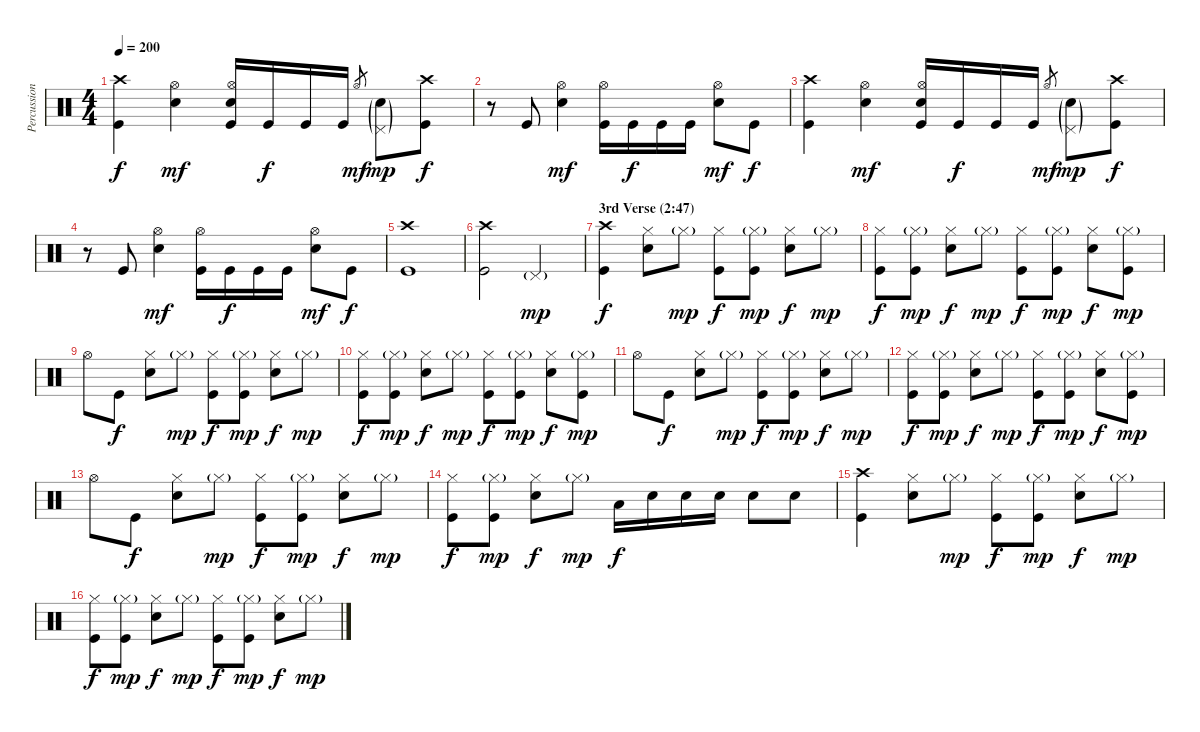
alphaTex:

\track ("Percussion" "Percussion") {instrument percussion}
\staff {score}
\articulation defaults
\ts (4 4)
\tempo 200
\clef neutral
\ks c
("Crash high (hit)" "Kick (hit)").4{dy f} ("Hi-Hat (open)" "Snare (hit) 2").4{dy mf} ("Hi-Hat (open)" "Snare (hit) 2" "Kick (hit)").16 "Kick (hit)".16{dy f} "Kick (hit)".16 "Kick (hit)".16 "Hi-Hat (open)".8{gr dy mf} ("Pedal Hi-Hat (hit)"{g} "Snare (hit) 2"{g}).8{dy mp} ("Crash high (hit)" "Kick (hit)").8{dy f} |
r.8 "Kick (hit)".8 ("Hi-Hat (open)" "Snare (hit) 2").4{dy mf} ("Hi-Hat (open)" "Kick (hit)").16 "Kick (hit)".16{dy f} "Kick (hit)".16 "Kick (hit)".16 ("Hi-Hat (open)" "Snare (hit) 2").8{dy mf} "Kick (hit)".8{dy f} |
("Crash high (hit)" "Kick (hit)").4 ("Hi-Hat (open)" "Snare (hit) 2").4{dy mf} ("Hi-Hat (open)" "Snare (hit) 2" "Kick (hit)").16 "Kick (hit)".16{dy f} "Kick (hit)".16 "Kick (hit)".16 "Hi-Hat (open)".8{gr dy mf} ("Pedal Hi-Hat (hit)"{g} "Snare (hit) 2"{g}).8{dy mp} ("Crash high (hit)" "Kick (hit)").8{dy f} |
r.8 "Kick (hit)".8 ("Hi-Hat (open)" "Snare (hit) 2").4{dy mf} ("Hi-Hat (open)" "Kick (hit)").16 "Kick (hit)".16{dy f} "Kick (hit)".16 "Kick (hit)".16 ("Hi-Hat (open)" "Snare (hit) 2").8{dy mf} "Kick (hit)".8{dy f} |
("Crash high (hit)" "Kick (hit)").1 |
("Crash high (hit)" "Kick (hit)").2 "Pedal Hi-Hat (hit)"{g}.2{dy mp} |
\section ("" "3rd Verse (2:47)")
("Crash high (hit)" "Kick (hit)").4{dy f} ("Hi-Hat (closed)" "Snare (hit) 2").8 "Hi-Hat (closed)"{g}.8{dy mp} ("Hi-Hat (closed)" "Kick (hit)").8{dy f} ("Hi-Hat (closed)"{g} "Kick (hit)").8{dy mp} ("Hi-Hat (closed)" "Snare (hit) 2").8{dy f} "Hi-Hat (closed)"{g}.8{dy mp} |
("Hi-Hat (closed)" "Kick (hit)").8{dy f} ("Hi-Hat (closed)"{g} "Kick (hit)").8{dy mp} ("Hi-Hat (closed)" "Snare (hit) 2").8{dy f} "Hi-Hat (closed)"{g}.8{dy mp} ("Hi-Hat (closed)" "Kick (hit)").8{dy f} ("Hi-Hat (closed)"{g} "Kick (hit)").8{dy mp} ("Hi-Hat (closed)" "Snare (hit) 2").8{dy f} ("Hi-Hat (closed)"{g} "Kick (hit)").8{dy mp} |
"Hi-Hat (open)".8 "Kick (hit)".8{dy f} ("Hi-Hat (closed)" "Snare (hit) 2").8 "Hi-Hat (closed)"{g}.8{dy mp} ("Hi-Hat (closed)" "Kick (hit)").8{dy f} ("Hi-Hat (closed)"{g} "Kick (hit)").8{dy mp} ("Hi-Hat (closed)" "Snare (hit) 2").8{dy f} "Hi-Hat (closed)"{g}.8{dy mp} |
("Hi-Hat (closed)" "Kick (hit)").8{dy f} ("Hi-Hat (closed)"{g} "Kick (hit)").8{dy mp} ("Hi-Hat (closed)" "Snare (hit) 2").8{dy f} "Hi-Hat (closed)"{g}.8{dy mp} ("Hi-Hat (closed)" "Kick (hit)").8{dy f} ("Hi-Hat (closed)"{g} "Kick (hit)").8{dy mp} ("Hi-Hat (closed)" "Snare (hit) 2").8{dy f} ("Hi-Hat (closed)"{g} "Kick (hit)").8{dy mp} |
"Hi-Hat (open)".8 "Kick (hit)".8{dy f} ("Hi-Hat (closed)" "Snare (hit) 2").8 "Hi-Hat (closed)"{g}.8{dy mp} ("Hi-Hat (closed)" "Kick (hit)").8{dy f} ("Hi-Hat (closed)"{g} "Kick (hit)").8{dy mp} ("Hi-Hat (closed)" "Snare (hit) 2").8{dy f} "Hi-Hat (closed)"{g}.8{dy mp} |
("Hi-Hat (closed)" "Kick (hit)").8{dy f} ("Hi-Hat (closed)"{g} "Kick (hit)").8{dy mp} ("Hi-Hat (closed)" "Snare (hit) 2").8{dy f} "Hi-Hat (closed)"{g}.8{dy mp} ("Hi-Hat (closed)" "Kick (hit)").8{dy f} ("Hi-Hat (closed)"{g} "Kick (hit)").8{dy mp} ("Hi-Hat (closed)" "Snare (hit) 2").8{dy f} ("Hi-Hat (closed)"{g} "Kick (hit)").8{dy mp} |
"Hi-Hat (open)".8 "Kick (hit)".8{dy f} ("Hi-Hat (closed)" "Snare (hit) 2").8 "Hi-Hat (closed)"{g}.8{dy mp} ("Hi-Hat (closed)" "Kick (hit)").8{dy f} ("Hi-Hat (closed)"{g} "Kick (hit)").8{dy mp} ("Hi-Hat (closed)" "Snare (hit) 2").8{dy f} "Hi-Hat (closed)"{g}.8{dy mp} |
("Hi-Hat (closed)" "Kick (hit)").8{dy f} ("Hi-Hat (closed)"{g} "Kick (hit)").8{dy mp} ("Hi-Hat (closed)" "Snare (hit) 2").8{dy f} "Hi-Hat (closed)"{g}.8{dy mp} "Low Tom (hit)".16{dy f} "Snare (hit) 2".16 "Snare (hit) 2".16 "Snare (hit) 2".16 "Snare (hit) 2".8 "Snare (hit) 2".8 |
("Crash high (hit)" "Kick (hit)").4 ("Hi-Hat (closed)" "Snare (hit) 2").8 "Hi-Hat (closed)"{g}.8{dy mp} ("Hi-Hat (closed)" "Kick (hit)").8{dy f} ("Hi-Hat (closed)"{g} "Kick (hit)").8{dy mp} ("Hi-Hat (closed)" "Snare (hit) 2").8{dy f} "Hi-Hat (closed)"{g}.8{dy mp} |
("Hi-Hat (closed)" "Kick (hit)").8{dy f} ("Hi-Hat (closed)"{g} "Kick (hit)").8{dy mp} ("Hi-Hat (closed)" "Snare (hit) 2").8{dy f} "Hi-Hat (closed)"{g}.8{dy mp} ("Hi-Hat (closed)" "Kick (hit)").8{dy f} ("Hi-Hat (closed)"{g} "Kick (hit)").8{dy mp} ("Hi-Hat (closed)" "Snare (hit) 2").8{dy f} "Hi-Hat (closed)"{g}.8{dy mp}
